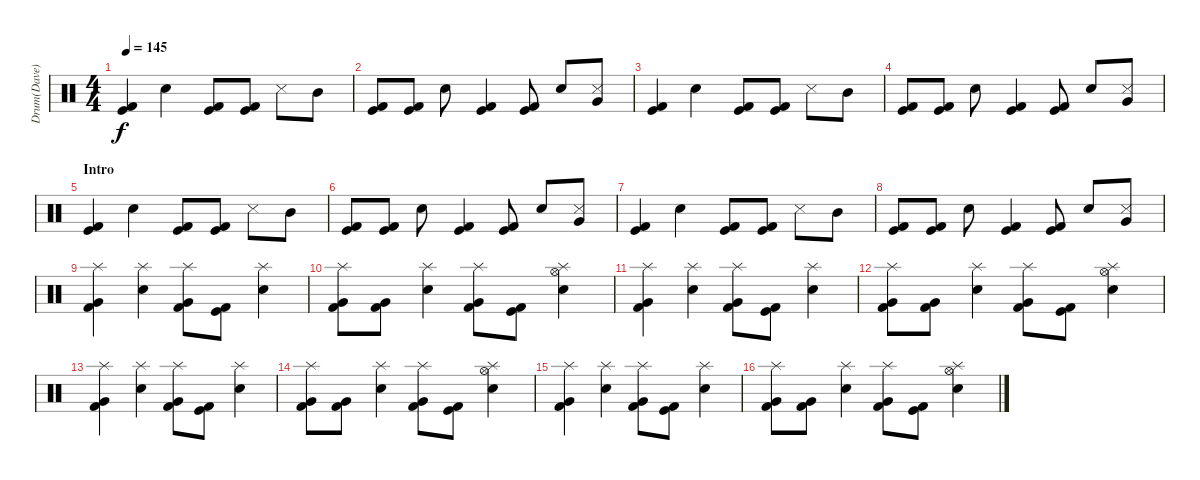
\track ("Drum(Dave)" "Drum(Dave)") {instrument percussion}
\staff {score}
\articulation defaults
\ts (4 4)
\tempo 145
\clef neutral
\ks c
("Kick (hit) 2" "Kick (hit)").4{dy f} "Electric Snare (hit)".4 ("Kick (hit) 2" "Kick (hit)").8 ("Kick (hit) 2" "Kick (hit)").8 "Snare (side stick) 3".8 "Mid Tom (hit)".8 |
("Kick (hit) 2" "Kick (hit)").8 ("Kick (hit) 2" "Kick (hit)").8 "Electric Snare (hit)".8 ("Kick (hit) 2" "Kick (hit)").4 ("Kick (hit) 2" "Kick (hit)").8 "Electric Snare (hit)".8 ("Very Low Tom (hit)" "Snare (side stick) 3").8 |
("Kick (hit) 2" "Kick (hit)").4 "Electric Snare (hit)".4 ("Kick (hit) 2" "Kick (hit)").8 ("Kick (hit) 2" "Kick (hit)").8 "Snare (side stick) 3".8 "Mid Tom (hit)".8 |
("Kick (hit) 2" "Kick (hit)").8 ("Kick (hit) 2" "Kick (hit)").8 "Electric Snare (hit)".8 ("Kick (hit) 2" "Kick (hit)").4 ("Kick (hit) 2" "Kick (hit)").8 "Electric Snare (hit)".8 ("Very Low Tom (hit)" "Snare (side stick) 3").8 |
\section ("" "Intro")
("Kick (hit) 2" "Kick (hit)").4 "Electric Snare (hit)".4 ("Kick (hit) 2" "Kick (hit)").8 ("Kick (hit) 2" "Kick (hit)").8 "Snare (side stick) 3".8 "Mid Tom (hit)".8 |
("Kick (hit) 2" "Kick (hit)").8 ("Kick (hit) 2" "Kick (hit)").8 "Electric Snare (hit)".8 ("Kick (hit) 2" "Kick (hit)").4 ("Kick (hit) 2" "Kick (hit)").8 "Electric Snare (hit)".8 ("Very Low Tom (hit)" "Snare (side stick) 3").8 |
("Kick (hit) 2" "Kick (hit)").4 "Electric Snare (hit)".4 ("Kick (hit) 2" "Kick (hit)").8 ("Kick (hit) 2" "Kick (hit)").8 "Snare (side stick) 3".8 "Mid Tom (hit)".8 |
("Kick (hit) 2" "Kick (hit)").8 ("Kick (hit) 2" "Kick (hit)").8 "Electric Snare (hit)".8 ("Kick (hit) 2" "Kick (hit)").4 ("Kick (hit) 2" "Kick (hit)").8 "Electric Snare (hit)".8 ("Very Low Tom (hit)" "Snare (side stick) 3").8 |
("Kick (hit) 2" "Very Low Tom (hit)" "Splash (hit)").4 ("Electric Snare (hit)" "Splash (hit)").4 ("Very Low Tom (hit)" "Splash (hit)" "Kick (hit) 2").8 ("Kick (hit)" "Kick (hit) 2").8 ("Splash (hit)" "Electric Snare (hit)").4 |
("Kick (hit) 2" "Very Low Tom (hit)" "Splash (hit)").8 ("Kick (hit) 2" "Very Low Tom (hit)").8 ("Electric Snare (hit)" "Splash (hit)").4 ("Very Low Tom (hit)" "Splash (hit)" "Kick (hit) 2").8 ("Kick (hit)" "Kick (hit) 2").8 ("Splash (hit)" "Electric Snare (hit)" "Hi-Hat (open)").4 |
("Kick (hit) 2" "Very Low Tom (hit)" "Splash (hit)").4 ("Electric Snare (hit)" "Splash (hit)").4 ("Very Low Tom (hit)" "Splash (hit)" "Kick (hit) 2").8 ("Kick (hit)" "Kick (hit) 2").8 ("Splash (hit)" "Electric Snare (hit)").4 |
("Kick (hit) 2" "Very Low Tom (hit)" "Splash (hit)").8 ("Kick (hit) 2" "Very Low Tom (hit)").8 ("Electric Snare (hit)" "Splash (hit)").4 ("Very Low Tom (hit)" "Splash (hit)" "Kick (hit) 2").8 ("Kick (hit)" "Kick (hit) 2").8 ("Splash (hit)" "Electric Snare (hit)" "Hi-Hat (open)").4 |
("Kick (hit) 2" "Very Low Tom (hit)" "Splash (hit)").4 ("Electric Snare (hit)" "Splash (hit)").4 ("Very Low Tom (hit)" "Splash (hit)" "Kick (hit) 2").8 ("Kick (hit)" "Kick (hit) 2").8 ("Splash (hit)" "Electric Snare (hit)").4 |
("Kick (hit) 2" "Very Low Tom (hit)" "Splash (hit)").8 ("Kick (hit) 2" "Very Low Tom (hit)").8 ("Electric Snare (hit)" "Splash (hit)").4 ("Very Low Tom (hit)" "Splash (hit)" "Kick (hit) 2").8 ("Kick (hit)" "Kick (hit) 2").8 ("Splash (hit)" "Electric Snare (hit)" "Hi-Hat (open)").4 |
("Kick (hit) 2" "Very Low Tom (hit)" "Splash (hit)").4 ("Electric Snare (hit)" "Splash (hit)").4 ("Very Low Tom (hit)" "Splash (hit)" "Kick (hit) 2").8 ("Kick (hit)" "Kick (hit) 2").8 ("Splash (hit)" "Electric Snare (hit)").4 |
("Kick (hit) 2" "Very Low Tom (hit)" "Splash (hit)").8 ("Kick (hit) 2" "Very Low Tom (hit)").8 ("Electric Snare (hit)" "Splash (hit)").4 ("Very Low Tom (hit)" "Splash (hit)" "Kick (hit) 2").8 ("Kick (hit)" "Kick (hit) 2").8 ("Splash (hit)" "Electric Snare (hit)" "Hi-Hat (open)").4
